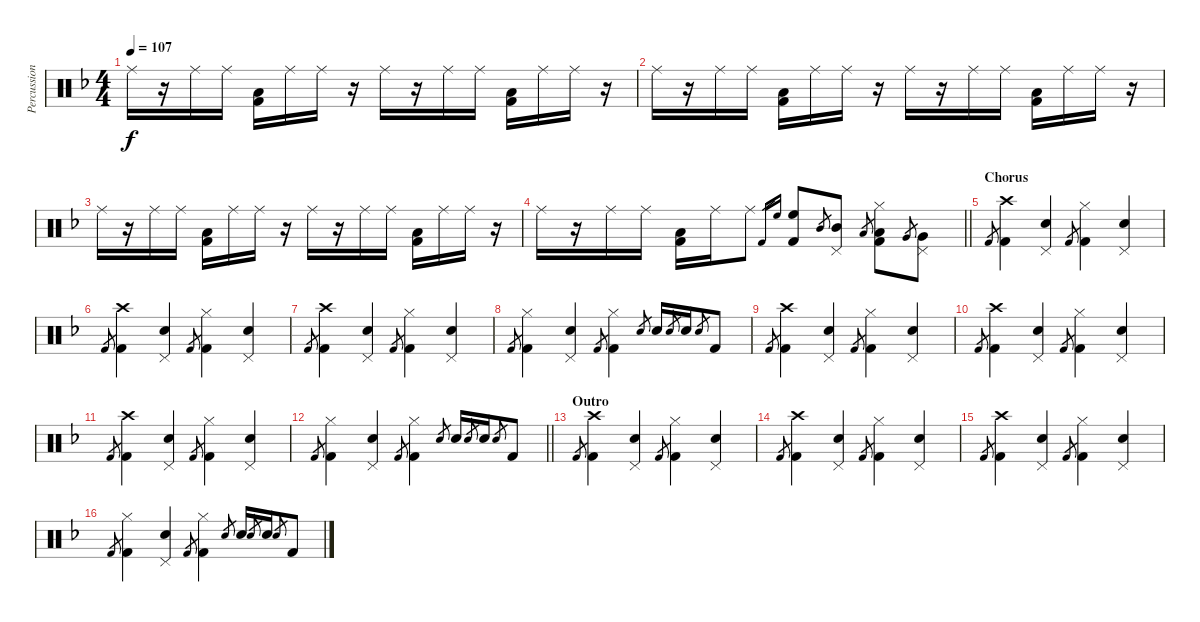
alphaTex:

\track ("Percussion" "Percussion") {instrument percussion}
\staff {score}
\articulation defaults
\ts (4 4)
\tempo 107
\clef neutral
\ks f "Ride (middle)".16{dy f}
r.16 "Ride (middle)".16 "Ride (middle)".16 ("Low Floor Tom (hit)" "Kick (hit) 2").16 "Ride (middle)".16 "Ride (middle)".16 r.16 "Ride (middle)".16 r.16 "Ride (middle)".16 "Ride (middle)".16 ("Low Floor Tom (hit)" "Kick (hit) 2").16 "Ride (middle)".16 "Ride (middle)".16 r.16 |
"Ride (middle)".16 r.16 "Ride (middle)".16 "Ride (middle)".16 ("Low Floor Tom (hit)" "Kick (hit) 2").16 "Ride (middle)".16 "Ride (middle)".16 r.16 "Ride (middle)".16 r.16 "Ride (middle)".16 "Ride (middle)".16 ("Low Floor Tom (hit)" "Kick (hit) 2").16 "Ride (middle)".16 "Ride (middle)".16 r.16 |
"Ride (middle)".16 r.16 "Ride (middle)".16 "Ride (middle)".16 ("Low Floor Tom (hit)" "Kick (hit) 2").16 "Ride (middle)".16 "Ride (middle)".16 r.16 "Ride (middle)".16 r.16 "Ride (middle)".16 "Ride (middle)".16 ("Low Floor Tom (hit)" "Kick (hit) 2").16 "Ride (middle)".16 "Ride (middle)".16 r.16 |
\barLineRight lightlight "Ride (middle)".16
r.16 "Ride (middle)".16 "Ride (middle)".16 ("Low Floor Tom (hit)" "Kick (hit) 2").16 "Ride (middle)".16 "Ride (middle)".8 "Kick (hit) 2".16{gr} "High Floor Tom (hit)".16{gr} ("Kick (hit) 2" "High Floor Tom (hit)").8 "Mid Tom (hit)".8{gr} ("Mid Tom (hit)" "Pedal Hi-Hat (hit)").8 "Low Tom (hit)".8{gr} ("Kick (hit) 2" "Low Tom (hit)" "Hi-Hat (closed)").8 "Very Low Tom (hit)".8{gr} ("Very Low Tom (hit)" "Pedal Hi-Hat (hit)").8 |
\section ("" "Chorus")
"Kick (hit) 2".8{gr} ("Kick (hit) 2" "Crash high (hit)").4 ("Snare (hit) 2" "Pedal Hi-Hat (hit)").4 "Kick (hit) 2".8{gr} ("Kick (hit) 2" "Hi-Hat (closed)").4 ("Snare (hit) 2" "Pedal Hi-Hat (hit)").4 |
"Kick (hit) 2".8{gr} ("Kick (hit) 2" "Crash high (hit)").4 ("Snare (hit) 2" "Pedal Hi-Hat (hit)").4 "Kick (hit) 2".8{gr} ("Kick (hit) 2" "Hi-Hat (closed)").4 ("Snare (hit) 2" "Pedal Hi-Hat (hit)").4 |
"Kick (hit) 2".8{gr} ("Kick (hit) 2" "Crash high (hit)").4 ("Snare (hit) 2" "Pedal Hi-Hat (hit)").4 "Kick (hit) 2".8{gr} ("Kick (hit) 2" "Hi-Hat (closed)").4 ("Snare (hit) 2" "Pedal Hi-Hat (hit)").4 |
"Kick (hit) 2".8{gr} ("Kick (hit) 2" "Hi-Hat (closed)").4 ("Snare (hit) 2" "Pedal Hi-Hat (hit)").4 "Kick (hit) 2".8{gr} ("Kick (hit) 2" "Hi-Hat (closed)").4 "Snare (hit) 2".8{gr} "Snare (hit) 2".16 "Snare (hit) 2".8{gr} "Snare (hit) 2".16 "Snare (hit) 2".8{gr} "Kick (hit) 2".8 |
"Kick (hit) 2".8{gr} ("Kick (hit) 2" "Crash high (hit)").4 ("Snare (hit) 2" "Pedal Hi-Hat (hit)").4 "Kick (hit) 2".8{gr} ("Kick (hit) 2" "Hi-Hat (closed)").4 ("Snare (hit) 2" "Pedal Hi-Hat (hit)").4 |
"Kick (hit) 2".8{gr} ("Kick (hit) 2" "Crash high (hit)").4 ("Snare (hit) 2" "Pedal Hi-Hat (hit)").4 "Kick (hit) 2".8{gr} ("Kick (hit) 2" "Hi-Hat (closed)").4 ("Snare (hit) 2" "Pedal Hi-Hat (hit)").4 |
"Kick (hit) 2".8{gr} ("Kick (hit) 2" "Crash high (hit)").4 ("Snare (hit) 2" "Pedal Hi-Hat (hit)").4 "Kick (hit) 2".8{gr} ("Kick (hit) 2" "Hi-Hat (closed)").4 ("Snare (hit) 2" "Pedal Hi-Hat (hit)").4 |
\barLineRight lightlight "Kick (hit) 2".8{gr}
("Kick (hit) 2" "Hi-Hat (closed)").4 ("Snare (hit) 2" "Pedal Hi-Hat (hit)").4 "Kick (hit) 2".8{gr} ("Kick (hit) 2" "Hi-Hat (closed)").4 "Snare (hit) 2".8{gr} "Snare (hit) 2".16 "Snare (hit) 2".8{gr} "Snare (hit) 2".16 "Snare (hit) 2".8{gr} "Kick (hit) 2".8 |
\section ("" "Outro")
"Kick (hit) 2".8{gr} ("Kick (hit) 2" "Crash high (hit)").4 ("Snare (hit) 2" "Pedal Hi-Hat (hit)").4 "Kick (hit) 2".8{gr} ("Kick (hit) 2" "Hi-Hat (closed)").4 ("Snare (hit) 2" "Pedal Hi-Hat (hit)").4 |
"Kick (hit) 2".8{gr} ("Kick (hit) 2" "Crash high (hit)").4 ("Snare (hit) 2" "Pedal Hi-Hat (hit)").4 "Kick (hit) 2".8{gr} ("Kick (hit) 2" "Hi-Hat (closed)").4 ("Snare (hit) 2" "Pedal Hi-Hat (hit)").4 |
"Kick (hit) 2".8{gr} ("Kick (hit) 2" "Crash high (hit)").4 ("Snare (hit) 2" "Pedal Hi-Hat (hit)").4 "Kick (hit) 2".8{gr} ("Kick (hit) 2" "Hi-Hat (closed)").4 ("Snare (hit) 2" "Pedal Hi-Hat (hit)").4 |
"Kick (hit) 2".8{gr} ("Kick (hit) 2" "Hi-Hat (closed)").4 ("Snare (hit) 2" "Pedal Hi-Hat (hit)").4 "Kick (hit) 2".8{gr} ("Kick (hit) 2" "Hi-Hat (closed)").4 "Snare (hit) 2".8{gr} "Snare (hit) 2".16 "Snare (hit) 2".8{gr} "Snare (hit) 2".16 "Snare (hit) 2".8{gr} "Kick (hit) 2".8
